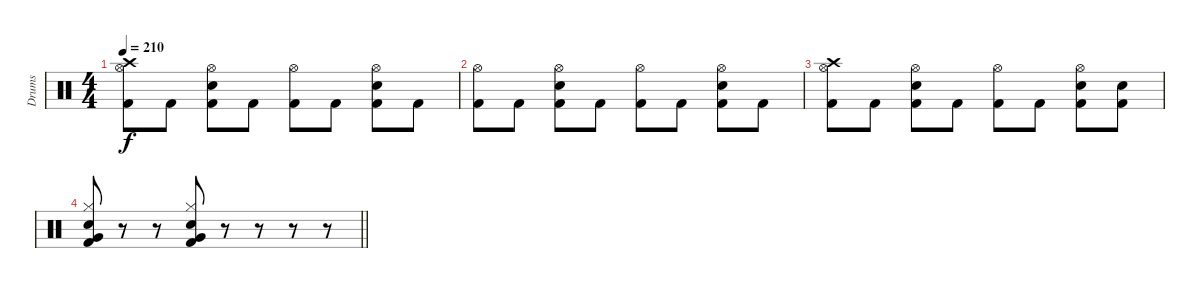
\track ("Drums" "Drums") {instrument percussion}
\staff {score}
\articulation defaults
\ts (4 4)
\tempo 210
\clef neutral
\ks c
("Crash high (hit)" "Hi-Hat (open)" "Kick (hit) 2").8{dy f} "Kick (hit) 2".8 ("Hi-Hat (open)" "Snare (hit) 2" "Kick (hit) 2").8 "Kick (hit) 2".8 ("Hi-Hat (open)" "Kick (hit) 2").8 "Kick (hit) 2".8 ("Hi-Hat (open)" "Snare (hit) 2" "Kick (hit) 2").8 "Kick (hit) 2".8 |
("Hi-Hat (open)" "Kick (hit) 2").8 "Kick (hit) 2".8 ("Hi-Hat (open)" "Snare (hit) 2" "Kick (hit) 2").8 "Kick (hit) 2".8 ("Hi-Hat (open)" "Kick (hit) 2").8 "Kick (hit) 2".8 ("Hi-Hat (open)" "Snare (hit) 2" "Kick (hit) 2").8 "Kick (hit) 2".8 |
("Crash high (hit)" "Hi-Hat (open)" "Kick (hit) 2").8 "Kick (hit) 2".8 ("Hi-Hat (open)" "Snare (hit) 2" "Kick (hit) 2").8 "Kick (hit) 2".8 ("Hi-Hat (open)" "Kick (hit) 2").8 "Kick (hit) 2".8 ("Hi-Hat (open)" "Snare (hit) 2" "Kick (hit) 2").8 ("Snare (hit) 2" "Kick (hit) 2").8 |
\barLineRight lightlight
("Hi-Hat (closed)" "Very Low Tom (hit)" "Snare (hit) 2" "Kick (hit) 2").8 r.8 r.8 ("Hi-Hat (closed)" "Very Low Tom (hit)" "Snare (hit) 2" "Kick (hit) 2").8 r.8 r.8 r.8 r.8
